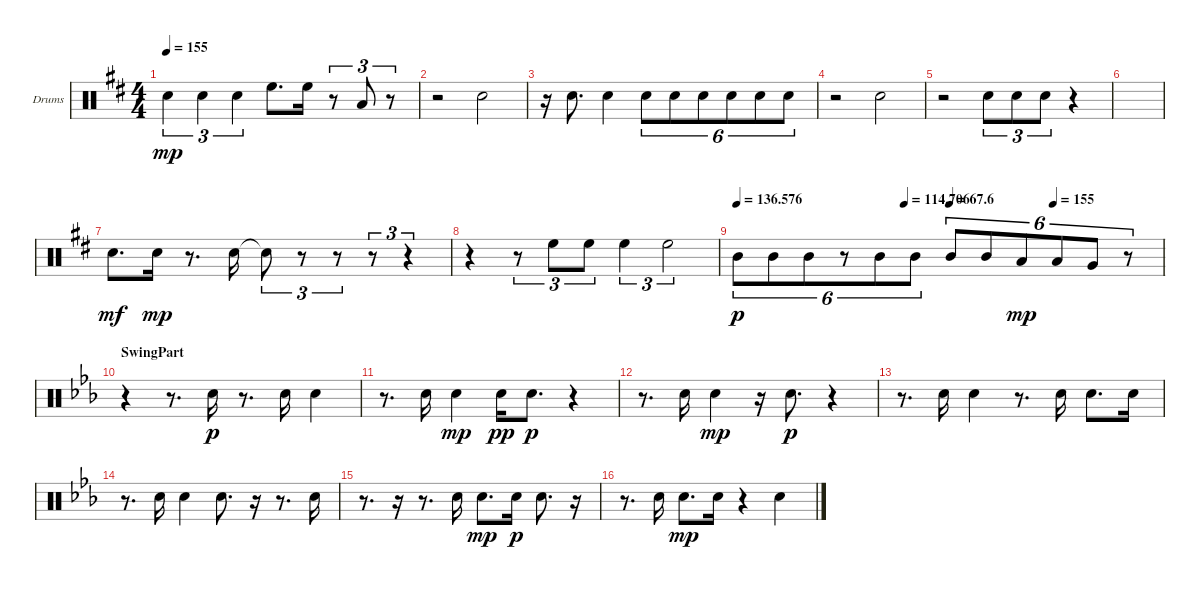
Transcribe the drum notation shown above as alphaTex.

\bracketExtendMode groupsimilarinstruments
\firstSystemTrackNameOrientation horizontal
\otherSystemsTrackNameOrientation horizontal
\track ("Drums" "Drums") {instrument percussion}
\staff {score}
\articulation defaults
\ts (4 4)
\tempo 155
\clef neutral
\ks d "Snare (hit) 2".4{tu (3 2) dy mp} "Snare (hit) 2".4{tu (3 2)} "Snare (hit) 2".4{tu (3 2)} "High Floor Tom (hit)".8{d} "High Floor Tom (hit)".16
r.8{tu (3 2)} "Low Tom (hit)".8{tu (3 2)} r.8{tu (3 2)} |
r.2 "Snare (hit) 2".2 |
r.16 "Snare (hit) 2".8{d} "Snare (hit) 2".4 "Snare (hit) 2".8{tu (6 4)} "Snare (hit) 2".8{tu (6 4)} "Snare (hit) 2".8{tu (6 4)} "Snare (hit) 2".8{tu (6 4)} "Snare (hit) 2".8{tu (6 4)} "Snare (hit) 2".8{tu (6 4)} |
r.2 "Snare (hit) 2".2 |
r.2 "Snare (hit) 2".8{tu (3 2)} "Snare (hit) 2".8{tu (3 2)} "Snare (hit) 2".8{tu (3 2)} r.4 |
|
"Snare (hit) 2".8{d dy mf} "Snare (hit) 2".16{dy mp} r.8{d} "Snare (hit) 2".16 "Snare (hit) 2"{t}.8{tu (3 2)} r.8{tu (3 2)} r.8{tu (3 2)} r.8{tu (3 2)} r.4{tu (3 2)} |
r.4 r.8{tu (3 2)} "High Floor Tom (hit)".8{tu (3 2)} "High Floor Tom (hit)".8{tu (3 2)} "High Floor Tom (hit)".4{tu (3 2)} "High Floor Tom (hit)".2{tu (3 2)} |
\tempo
136.576
\tempo (114.706 0.39375)
\tempo (67.6 0.5)
\tempo (155 0.74375)
"Mid Tom (hit)".8{tu (6 4) dy p} "Mid Tom (hit)".8{tu (6 4)} "Mid Tom (hit)".8{tu (6 4)} r.8{tu (6 4)} "Mid Tom (hit)".8{tu (6 4)} "Mid Tom (hit)".8{tu (6 4)} "Mid Tom (hit)".8{tu (6 4)} "Mid Tom (hit)".8{tu (6 4)} "Low Tom (hit)".8{tu (6 4) dy mp} "Low Tom (hit)".8{tu (6 4)} "Very Low Tom (hit)".8{tu (6 4)} r.8{tu (6 4)} |
\section ("" "SwingPart")
\ks eb
r.4 r.8{d} "Snare (hit) 2".16{dy p} r.8{d} "Snare (hit) 2".16 "Snare (hit) 2".4 |
r.8{d} "Snare (hit) 2".16 "Snare (hit) 2".4{dy mp} "Snare (hit) 2".16{dy pp} "Snare (hit) 2".8{d dy p} r.4 |
r.8{d} "Snare (hit) 2".16 "Snare (hit) 2".4{dy mp} r.16 "Snare (hit) 2".8{d dy p} r.4 |
r.8{d} "Snare (hit) 2".16 "Snare (hit) 2".4 r.8{d} "Snare (hit) 2".16 "Snare (hit) 2".8{d} "Snare (hit) 2".16 |
r.8{d} "Snare (hit) 2".16 "Snare (hit) 2".4 "Snare (hit) 2".8{d} r.16 r.8{d} "Snare (hit) 2".16 |
r.8{d} r.16 r.8{d} "Snare (hit) 2".16 "Snare (hit) 2".8{d dy mp} "Snare (hit) 2".16{dy p} "Snare (hit) 2".8{d} r.16 |
r.8{d} "Snare (hit) 2".16 "Snare (hit) 2".8{d dy mp} "Snare (hit) 2".16 r.4 "Snare (hit) 2".4
